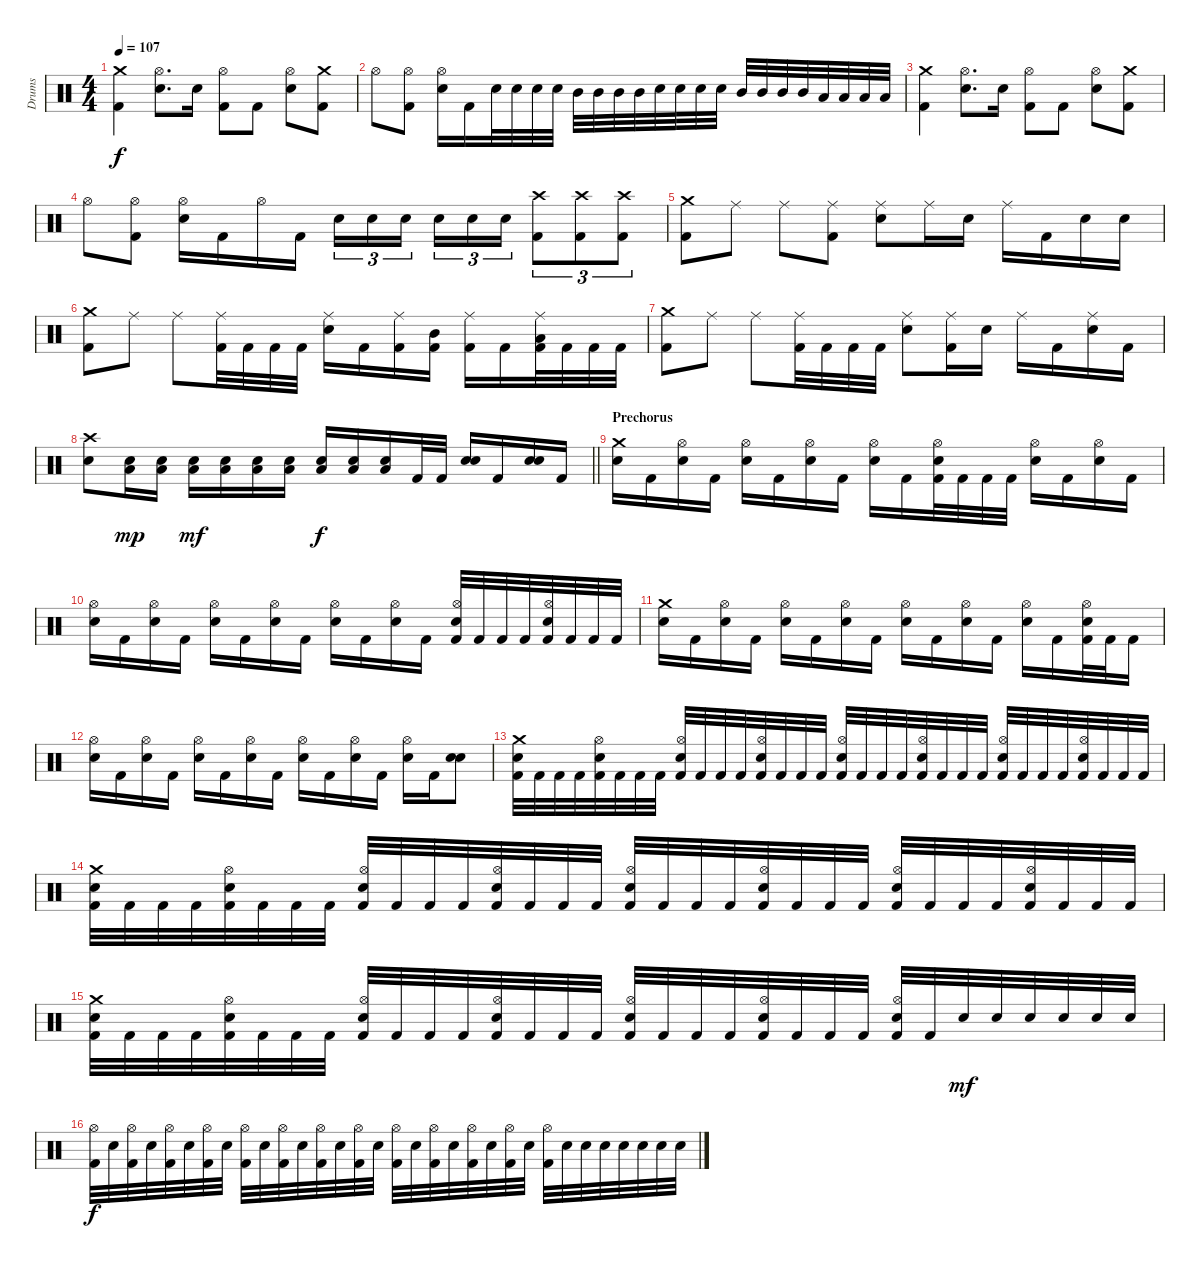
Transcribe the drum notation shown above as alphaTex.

\track ("Drums" "Drums") {instrument percussion}
\staff {score}
\articulation defaults
\ts (4 4)
\tempo 107
\clef neutral
\ks c
("Crash medium (hit)" "Kick (hit) 2").4{dy f} ("Hi-Hat (open)" "Electric Snare (hit)").8{d} "Electric Snare (hit)".16 ("Hi-Hat (open)" "Kick (hit) 2").8 "Kick (hit) 2".8 ("Hi-Hat (open)" "Electric Snare (hit)").8 ("Crash medium (hit)" "Kick (hit) 2").8 |
"Hi-Hat (open)".8 ("Hi-Hat (open)" "Kick (hit) 2").8 ("Hi-Hat (open)" "Electric Snare (hit)").16 "Kick (hit) 2".16 "Electric Snare (hit)".32 "Electric Snare (hit)".32 "Electric Snare (hit)".32 "Electric Snare (hit)".32 "Mid Tom (hit)".32 "Mid Tom (hit)".32 "Mid Tom (hit)".32 "Mid Tom (hit)".32 "Electric Snare (hit)".32 "Electric Snare (hit)".32 "Electric Snare (hit)".32 "Electric Snare (hit)".32 "Mid Tom (hit)".32 "Mid Tom (hit)".32 "Mid Tom (hit)".32 "Mid Tom (hit)".32 "Low Tom (hit)".32 "Low Tom (hit)".32 "Low Tom (hit)".32 "Low Tom (hit)".32 |
("Crash medium (hit)" "Kick (hit) 2").4 ("Hi-Hat (open)" "Electric Snare (hit)").8{d} "Electric Snare (hit)".16 ("Hi-Hat (open)" "Kick (hit) 2").8 "Kick (hit) 2".8 ("Hi-Hat (open)" "Electric Snare (hit)").8 ("Crash medium (hit)" "Kick (hit) 2").8 |
"Hi-Hat (open)".8 ("Hi-Hat (open)" "Kick (hit) 2").8 ("Hi-Hat (open)" "Electric Snare (hit)").16 "Kick (hit) 2".16 "Hi-Hat (open)".16 "Kick (hit) 2".16 "Electric Snare (hit)".16{tu (3 2)} "Electric Snare (hit)".16{tu (3 2)} "Electric Snare (hit)".16{tu (3 2) beam splitsecondary} "Electric Snare (hit)".16{tu (3 2)} "Electric Snare (hit)".16{tu (3 2)} "Electric Snare (hit)".16{tu (3 2)} ("Crash high (hit)" "Kick (hit) 2").8{tu (3 2)} ("Crash high (hit)" "Kick (hit) 2").8{tu (3 2)} ("Crash high (hit)" "Kick (hit) 2").8{tu (3 2)} |
("Crash medium (hit)" "Kick (hit) 2").8 "Ride (middle)".8 "Ride (middle)".8 ("Ride (middle)" "Kick (hit) 2").8 ("Ride (middle)" "Electric Snare (hit)").8 "Ride (middle)".16 "Electric Snare (hit)".16 "Ride (middle)".16 "Kick (hit) 2".16 "Electric Snare (hit)".16 "Electric Snare (hit)".16 |
("Crash medium (hit)" "Kick (hit) 2").8 "Ride (middle)".8 "Ride (middle)".8 ("Ride (middle)" "Kick (hit) 2").32 "Kick (hit) 2".32 "Kick (hit) 2".32 "Kick (hit) 2".32 ("Ride (middle)" "Electric Snare (hit)").16 "Kick (hit) 2".16 ("Ride (middle)" "Kick (hit) 2").16 ("Mid Tom (hit)" "Kick (hit) 2").16 ("Ride (middle)" "Kick (hit) 2").16 "Kick (hit) 2".16 ("Ride (middle)" "Low Tom (hit)" "Kick (hit) 2").32 "Kick (hit) 2".32 "Kick (hit) 2".32 "Kick (hit) 2".32 |
("Crash medium (hit)" "Kick (hit) 2").8 "Ride (middle)".8 "Ride (middle)".8 ("Ride (middle)" "Kick (hit) 2").32 "Kick (hit) 2".32 "Kick (hit) 2".32 "Kick (hit) 2".32 ("Ride (middle)" "Electric Snare (hit)").8 ("Ride (middle)" "Kick (hit) 2").16 "Electric Snare (hit)".16 "Ride (middle)".16 "Kick (hit) 2".16 ("Ride (middle)" "Electric Snare (hit)").16 "Kick (hit) 2".16 |
\barLineRight lightlight
("Crash high (hit)" "Electric Snare (hit)").8 ("Low Floor Tom (hit)" "Electric Snare (hit)").16{dy mp} ("Low Floor Tom (hit)" "Electric Snare (hit)").16 ("Low Floor Tom (hit)" "Electric Snare (hit)").16{dy mf} ("Low Floor Tom (hit)" "Electric Snare (hit)").16 ("Low Floor Tom (hit)" "Electric Snare (hit)").16 ("Low Floor Tom (hit)" "Electric Snare (hit)").16 ("Low Floor Tom (hit)" "Electric Snare (hit)").16{dy f} ("Low Floor Tom (hit)" "Electric Snare (hit)").16 ("Low Floor Tom (hit)" "Electric Snare (hit)").16 "Kick (hit) 2".32 "Kick (hit) 2".32 ("Electric Snare (hit)" "Electric Snare (hit)").16 "Kick (hit) 2".16 ("Electric Snare (hit)" "Electric Snare (hit)").16 "Kick (hit) 2".16 |
\section ("" "Prechorus")
("Crash medium (hit)" "Electric Snare (hit)").16 "Kick (hit) 2".16 ("Hi-Hat (open)" "Electric Snare (hit)").16 "Kick (hit) 2".16 ("Hi-Hat (open)" "Electric Snare (hit)").16 "Kick (hit) 2".16 ("Hi-Hat (open)" "Electric Snare (hit)").16 "Kick (hit) 2".16 ("Hi-Hat (open)" "Electric Snare (hit)").16 "Kick (hit) 2".16 ("Hi-Hat (open)" "Electric Snare (hit)" "Kick (hit) 2").32 "Kick (hit) 2".32 "Kick (hit) 2".32 "Kick (hit) 2".32 ("Hi-Hat (open)" "Electric Snare (hit)").16 "Kick (hit) 2".16 ("Hi-Hat (open)" "Electric Snare (hit)").16 "Kick (hit) 2".16 |
("Hi-Hat (open)" "Electric Snare (hit)").16 "Kick (hit) 2".16 ("Hi-Hat (open)" "Electric Snare (hit)").16 "Kick (hit) 2".16 ("Hi-Hat (open)" "Electric Snare (hit)").16 "Kick (hit) 2".16 ("Hi-Hat (open)" "Electric Snare (hit)").16 "Kick (hit) 2".16 ("Hi-Hat (open)" "Electric Snare (hit)").16 "Kick (hit) 2".16 ("Hi-Hat (open)" "Electric Snare (hit)").16 "Kick (hit) 2".16 ("Hi-Hat (open)" "Electric Snare (hit)" "Kick (hit) 2").32 "Kick (hit) 2".32 "Kick (hit) 2".32 "Kick (hit) 2".32 ("Hi-Hat (open)" "Electric Snare (hit)" "Kick (hit) 2").32 "Kick (hit) 2".32 "Kick (hit) 2".32 "Kick (hit) 2".32 |
("Crash medium (hit)" "Electric Snare (hit)").16 "Kick (hit) 2".16 ("Hi-Hat (open)" "Electric Snare (hit)").16 "Kick (hit) 2".16 ("Hi-Hat (open)" "Electric Snare (hit)").16 "Kick (hit) 2".16 ("Hi-Hat (open)" "Electric Snare (hit)").16 "Kick (hit) 2".16 ("Hi-Hat (open)" "Electric Snare (hit)").16 "Kick (hit) 2".16 ("Hi-Hat (open)" "Electric Snare (hit)").16 "Kick (hit) 2".16 ("Hi-Hat (open)" "Electric Snare (hit)").16 "Kick (hit) 2".16 ("Hi-Hat (open)" "Electric Snare (hit)" "Kick (hit) 2").32 "Kick (hit) 2".32 "Kick (hit) 2".16 |
("Hi-Hat (open)" "Electric Snare (hit)").16 "Kick (hit) 2".16 ("Hi-Hat (open)" "Electric Snare (hit)").16 "Kick (hit) 2".16 ("Hi-Hat (open)" "Electric Snare (hit)").16 "Kick (hit) 2".16 ("Hi-Hat (open)" "Electric Snare (hit)").16 "Kick (hit) 2".16 ("Hi-Hat (open)" "Electric Snare (hit)").16 "Kick (hit) 2".16 ("Hi-Hat (open)" "Electric Snare (hit)").16 "Kick (hit) 2".16 ("Hi-Hat (open)" "Electric Snare (hit)").16 "Kick (hit) 2".16 ("Electric Snare (hit)" "Electric Snare (hit)").8 |
("Crash medium (hit)" "Electric Snare (hit)" "Kick (hit) 2").32 "Kick (hit) 2".32 "Kick (hit) 2".32 "Kick (hit) 2".32 ("Hi-Hat (open)" "Electric Snare (hit)" "Kick (hit) 2").32 "Kick (hit) 2".32 "Kick (hit) 2".32 "Kick (hit) 2".32 ("Hi-Hat (open)" "Electric Snare (hit)" "Kick (hit) 2").32 "Kick (hit) 2".32 "Kick (hit) 2".32 "Kick (hit) 2".32 ("Hi-Hat (open)" "Electric Snare (hit)" "Kick (hit) 2").32 "Kick (hit) 2".32 "Kick (hit) 2".32 "Kick (hit) 2".32 ("Hi-Hat (open)" "Electric Snare (hit)" "Kick (hit) 2").32 "Kick (hit) 2".32 "Kick (hit) 2".32 "Kick (hit) 2".32 ("Hi-Hat (open)" "Electric Snare (hit)" "Kick (hit) 2").32 "Kick (hit) 2".32 "Kick (hit) 2".32 "Kick (hit) 2".32 ("Hi-Hat (open)" "Electric Snare (hit)" "Kick (hit) 2").32 "Kick (hit) 2".32 "Kick (hit) 2".32 "Kick (hit) 2".32 ("Hi-Hat (open)" "Electric Snare (hit)" "Kick (hit) 2").32 "Kick (hit) 2".32 "Kick (hit) 2".32 "Kick (hit) 2".32 |
("Crash medium (hit)" "Electric Snare (hit)" "Kick (hit) 2").32 "Kick (hit) 2".32 "Kick (hit) 2".32 "Kick (hit) 2".32 ("Hi-Hat (open)" "Electric Snare (hit)" "Kick (hit) 2").32 "Kick (hit) 2".32 "Kick (hit) 2".32 "Kick (hit) 2".32 ("Hi-Hat (open)" "Electric Snare (hit)" "Kick (hit) 2").32 "Kick (hit) 2".32 "Kick (hit) 2".32 "Kick (hit) 2".32 ("Hi-Hat (open)" "Electric Snare (hit)" "Kick (hit) 2").32 "Kick (hit) 2".32 "Kick (hit) 2".32 "Kick (hit) 2".32 ("Hi-Hat (open)" "Electric Snare (hit)" "Kick (hit) 2").32 "Kick (hit) 2".32 "Kick (hit) 2".32 "Kick (hit) 2".32 ("Hi-Hat (open)" "Electric Snare (hit)" "Kick (hit) 2").32 "Kick (hit) 2".32 "Kick (hit) 2".32 "Kick (hit) 2".32 ("Hi-Hat (open)" "Electric Snare (hit)" "Kick (hit) 2").32 "Kick (hit) 2".32 "Kick (hit) 2".32 "Kick (hit) 2".32 ("Hi-Hat (open)" "Electric Snare (hit)" "Kick (hit) 2").32 "Kick (hit) 2".32 "Kick (hit) 2".32 "Kick (hit) 2".32 |
("Crash medium (hit)" "Electric Snare (hit)" "Kick (hit) 2").32 "Kick (hit) 2".32 "Kick (hit) 2".32 "Kick (hit) 2".32 ("Hi-Hat (open)" "Electric Snare (hit)" "Kick (hit) 2").32 "Kick (hit) 2".32 "Kick (hit) 2".32 "Kick (hit) 2".32 ("Hi-Hat (open)" "Electric Snare (hit)" "Kick (hit) 2").32 "Kick (hit) 2".32 "Kick (hit) 2".32 "Kick (hit) 2".32 ("Hi-Hat (open)" "Electric Snare (hit)" "Kick (hit) 2").32 "Kick (hit) 2".32 "Kick (hit) 2".32 "Kick (hit) 2".32 ("Hi-Hat (open)" "Electric Snare (hit)" "Kick (hit) 2").32 "Kick (hit) 2".32 "Kick (hit) 2".32 "Kick (hit) 2".32 ("Hi-Hat (open)" "Electric Snare (hit)" "Kick (hit) 2").32 "Kick (hit) 2".32 "Kick (hit) 2".32 "Kick (hit) 2".32 ("Hi-Hat (open)" "Electric Snare (hit)" "Kick (hit) 2").32 "Kick (hit) 2".32 "Electric Snare (hit)".32{dy mf} "Electric Snare (hit)".32 "Electric Snare (hit)".32 "Electric Snare (hit)".32 "Electric Snare (hit)".32 "Electric Snare (hit)".32 |
("Hi-Hat (open)" "Kick (hit) 2").32{dy f} "Electric Snare (hit)".32 ("Hi-Hat (open)" "Kick (hit) 2").32 "Electric Snare (hit)".32 ("Hi-Hat (open)" "Kick (hit) 2").32 "Electric Snare (hit)".32 ("Hi-Hat (open)" "Kick (hit) 2").32 "Electric Snare (hit)".32 ("Hi-Hat (open)" "Kick (hit) 2").32 "Electric Snare (hit)".32 ("Hi-Hat (open)" "Kick (hit) 2").32 "Electric Snare (hit)".32 ("Hi-Hat (open)" "Kick (hit) 2").32 "Electric Snare (hit)".32 ("Hi-Hat (open)" "Kick (hit) 2").32 "Electric Snare (hit)".32 ("Hi-Hat (open)" "Kick (hit) 2").32 "Electric Snare (hit)".32 ("Hi-Hat (open)" "Kick (hit) 2").32 "Electric Snare (hit)".32 ("Hi-Hat (open)" "Kick (hit) 2").32 "Electric Snare (hit)".32 ("Hi-Hat (open)" "Kick (hit) 2").32 "Electric Snare (hit)".32 ("Hi-Hat (open)" "Kick (hit) 2").32 "Electric Snare (hit)".32 "Electric Snare (hit)".32 "Electric Snare (hit)".32 "Electric Snare (hit)".32 "Electric Snare (hit)".32 "Electric Snare (hit)".32 "Electric Snare (hit)".32
